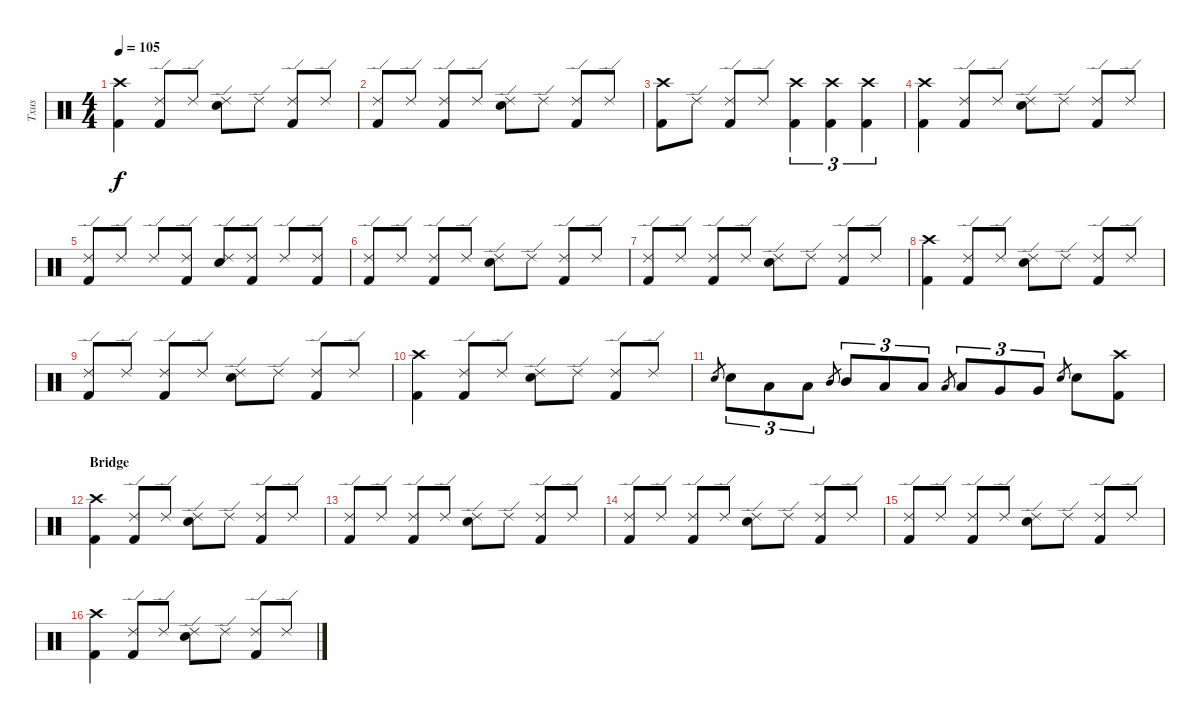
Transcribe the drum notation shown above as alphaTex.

\track ("Txus" "Txus") {instrument percussion}
\staff {score}
\articulation defaults
\ts (4 4)
\tempo 105
\clef neutral
\ks c
("Crash high (hit)" "Kick (hit) 2").4{dy f} ("Ride (edge) 2" "Kick (hit) 2").8 "Ride (edge) 2".8 ("Ride (edge) 2" "Electric Snare (hit)").8 "Ride (edge) 2".8 ("Ride (edge) 2" "Kick (hit) 2").8 "Ride (edge) 2".8 |
("Ride (edge) 2" "Kick (hit) 2").8 "Ride (edge) 2".8 ("Ride (edge) 2" "Kick (hit) 2").8 "Ride (edge) 2".8 ("Ride (edge) 2" "Electric Snare (hit)").8 "Ride (edge) 2".8 ("Ride (edge) 2" "Kick (hit) 2").8 "Ride (edge) 2".8 |
("Crash high (hit)" "Kick (hit) 2").8 "Ride (edge) 2".8 ("Ride (edge) 2" "Kick (hit) 2").8 "Ride (edge) 2".8 ("Crash high (hit)" "Kick (hit) 2").4{tu (3 2)} ("Crash high (hit)" "Kick (hit) 2").4{tu (3 2)} ("Crash high (hit)" "Kick (hit) 2").4{tu (3 2)} |
("Crash high (hit)" "Kick (hit) 2").4 ("Ride (edge) 2" "Kick (hit) 2").8 "Ride (edge) 2".8 ("Ride (edge) 2" "Electric Snare (hit)").8 "Ride (edge) 2".8 ("Ride (edge) 2" "Kick (hit) 2").8 "Ride (edge) 2".8 |
("Ride (edge) 2" "Kick (hit) 2").8 "Ride (edge) 2".8 "Ride (edge) 2".8 ("Ride (edge) 2" "Kick (hit) 2").8 ("Ride (edge) 2" "Electric Snare (hit)").8 ("Ride (edge) 2" "Kick (hit) 2").8 "Ride (edge) 2".8 ("Ride (edge) 2" "Kick (hit) 2").8 |
("Ride (edge) 2" "Kick (hit) 2").8 "Ride (edge) 2".8 ("Ride (edge) 2" "Kick (hit) 2").8 "Ride (edge) 2".8 ("Ride (edge) 2" "Electric Snare (hit)").8 "Ride (edge) 2".8 ("Ride (edge) 2" "Kick (hit) 2").8 "Ride (edge) 2".8 |
("Ride (edge) 2" "Kick (hit) 2").8 "Ride (edge) 2".8 ("Ride (edge) 2" "Kick (hit) 2").8 "Ride (edge) 2".8 ("Ride (edge) 2" "Electric Snare (hit)").8 "Ride (edge) 2".8 ("Ride (edge) 2" "Kick (hit) 2").8 "Ride (edge) 2".8 |
("Crash high (hit)" "Kick (hit) 2").4 ("Ride (edge) 2" "Kick (hit) 2").8 "Ride (edge) 2".8 ("Ride (edge) 2" "Electric Snare (hit)").8 "Ride (edge) 2".8 ("Ride (edge) 2" "Kick (hit) 2").8 "Ride (edge) 2".8 |
("Ride (edge) 2" "Kick (hit) 2").8 "Ride (edge) 2".8 ("Ride (edge) 2" "Kick (hit) 2").8 "Ride (edge) 2".8 ("Ride (edge) 2" "Electric Snare (hit)").8 "Ride (edge) 2".8 ("Ride (edge) 2" "Kick (hit) 2").8 "Ride (edge) 2".8 |
("Crash high (hit)" "Kick (hit) 2").4 ("Ride (edge) 2" "Kick (hit) 2").8 "Ride (edge) 2".8 ("Ride (edge) 2" "Electric Snare (hit)").8 "Ride (edge) 2".8 ("Ride (edge) 2" "Kick (hit) 2").8 "Ride (edge) 2".8 |
"Electric Snare (hit)".8{gr} "Electric Snare (hit)".8{tu (3 2)} "Low Tom (hit)".8{tu (3 2)} "Low Tom (hit)".8{tu (3 2)} "Mid Tom (hit)".8{gr} "Mid Tom (hit)".8{tu (3 2)} "Low Tom (hit)".8{tu (3 2)} "Low Tom (hit)".8{tu (3 2)} "Low Tom (hit)".8{gr} "Low Tom (hit)".8{tu (3 2)} "Very Low Tom (hit)".8{tu (3 2)} "Very Low Tom (hit)".8{tu (3 2)} "Electric Snare (hit)".8{gr} "Electric Snare (hit)".8 ("Crash high (hit)" "Kick (hit) 2").8 |
\section ("" "Bridge")
("Crash high (hit)" "Kick (hit) 2").4 ("Ride (edge) 2" "Kick (hit) 2").8 "Ride (edge) 2".8 ("Ride (edge) 2" "Electric Snare (hit)").8 "Ride (edge) 2".8 ("Ride (edge) 2" "Kick (hit) 2").8 "Ride (edge) 2".8 |
("Ride (edge) 2" "Kick (hit) 2").8 "Ride (edge) 2".8 ("Ride (edge) 2" "Kick (hit) 2").8 "Ride (edge) 2".8 ("Ride (edge) 2" "Electric Snare (hit)").8 "Ride (edge) 2".8 ("Ride (edge) 2" "Kick (hit) 2").8 "Ride (edge) 2".8 |
("Ride (edge) 2" "Kick (hit) 2").8 "Ride (edge) 2".8 ("Ride (edge) 2" "Kick (hit) 2").8 "Ride (edge) 2".8 ("Ride (edge) 2" "Electric Snare (hit)").8 "Ride (edge) 2".8 ("Ride (edge) 2" "Kick (hit) 2").8 "Ride (edge) 2".8 |
("Ride (edge) 2" "Kick (hit) 2").8 "Ride (edge) 2".8 ("Ride (edge) 2" "Kick (hit) 2").8 "Ride (edge) 2".8 ("Ride (edge) 2" "Electric Snare (hit)").8 "Ride (edge) 2".8 ("Ride (edge) 2" "Kick (hit) 2").8 "Ride (edge) 2".8 |
("Crash high (hit)" "Kick (hit) 2").4 ("Ride (edge) 2" "Kick (hit) 2").8 "Ride (edge) 2".8 ("Ride (edge) 2" "Electric Snare (hit)").8 "Ride (edge) 2".8 ("Ride (edge) 2" "Kick (hit) 2").8 "Ride (edge) 2".8
